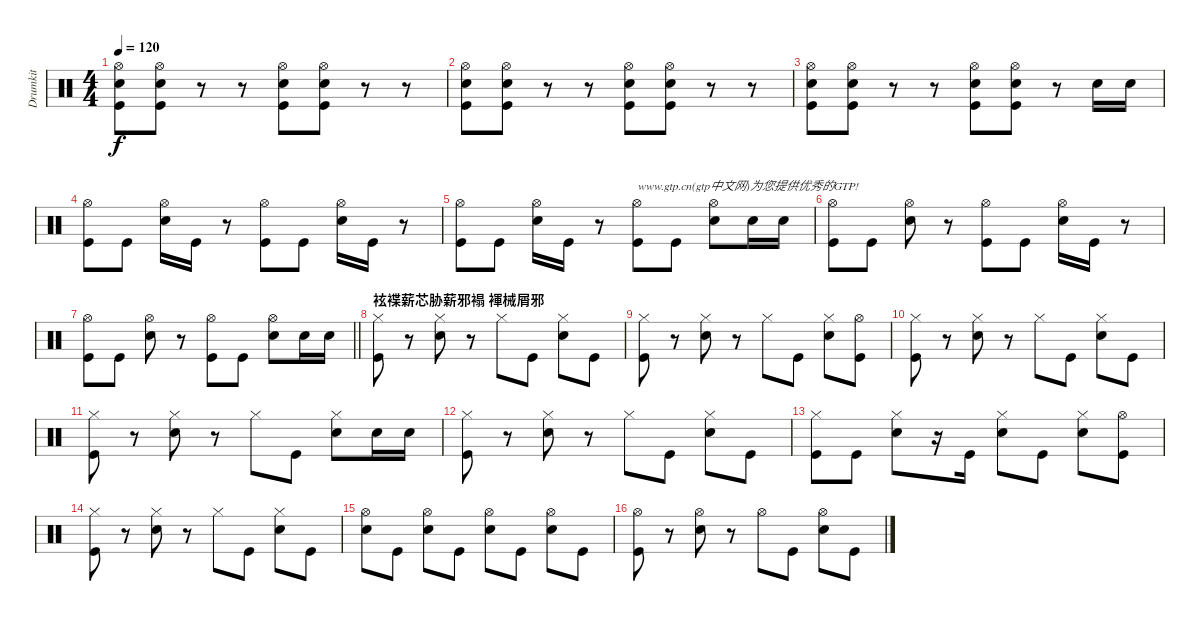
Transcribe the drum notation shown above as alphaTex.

\track ("Drumkit" "Drumkit") {instrument percussion}
\staff {score}
\articulation defaults
\ts (4 4)
\tempo 120
\clef neutral
\ks c
("Kick (hit)" "Snare (hit) 2" "Hi-Hat (open)").8{dy f} ("Kick (hit)" "Snare (hit) 2" "Hi-Hat (open)").8 r.8 r.8 ("Kick (hit)" "Snare (hit) 2" "Hi-Hat (open)").8 ("Kick (hit)" "Snare (hit) 2" "Hi-Hat (open)").8 r.8 r.8 |
("Kick (hit)" "Snare (hit) 2" "Hi-Hat (open)").8 ("Kick (hit)" "Snare (hit) 2" "Hi-Hat (open)").8 r.8 r.8 ("Kick (hit)" "Snare (hit) 2" "Hi-Hat (open)").8 ("Kick (hit)" "Snare (hit) 2" "Hi-Hat (open)").8 r.8 r.8 |
("Kick (hit)" "Snare (hit) 2" "Hi-Hat (open)").8 ("Kick (hit)" "Snare (hit) 2" "Hi-Hat (open)").8 r.8 r.8 ("Kick (hit)" "Snare (hit) 2" "Hi-Hat (open)").8 ("Kick (hit)" "Snare (hit) 2" "Hi-Hat (open)").8 r.8 "Snare (hit) 2".16 "Snare (hit) 2".16 |
("Kick (hit)" "Hi-Hat (open)").8 "Kick (hit)".8 ("Snare (hit) 2" "Hi-Hat (open)").16 "Kick (hit)".16 r.8 ("Kick (hit)" "Hi-Hat (open)").8 "Kick (hit)".8 ("Snare (hit) 2" "Hi-Hat (open)").16 "Kick (hit)".16 r.8 |
("Kick (hit)" "Hi-Hat (open)").8 "Kick (hit)".8 ("Snare (hit) 2" "Hi-Hat (open)").16 "Kick (hit)".16 r.8 ("Kick (hit)" "Hi-Hat (open)").8{txt "www.gtp.cn(gtp中文网)为您提供优秀的GTP!"} "Kick (hit)".8 ("Snare (hit) 2" "Hi-Hat (open)").8 "Snare (hit) 2".16 "Snare (hit) 2".16 |
("Kick (hit)" "Hi-Hat (open)").8 "Kick (hit)".8 ("Snare (hit) 2" "Hi-Hat (open)").8 r.8 ("Kick (hit)" "Hi-Hat (open)").8 "Kick (hit)".8 ("Snare (hit) 2" "Hi-Hat (open)").16 "Kick (hit)".16 r.8 |
\barLineRight lightlight
("Kick (hit)" "Hi-Hat (open)").8 "Kick (hit)".8 ("Snare (hit) 2" "Hi-Hat (open)").8 r.8 ("Kick (hit)" "Hi-Hat (open)").8 "Kick (hit)".8 ("Snare (hit) 2" "Hi-Hat (open)").8 "Snare (hit) 2".16 "Snare (hit) 2".16 |
\section ("" "袨褋薪芯胁薪邪褟 褌械屑邪")
("Kick (hit)" "Hi-Hat (closed)").8 r.8 ("Snare (hit) 2" "Hi-Hat (closed)").8 r.8 "Hi-Hat (closed)".8 "Kick (hit)".8 ("Snare (hit) 2" "Hi-Hat (closed)").8 "Kick (hit)".8 |
("Kick (hit)" "Hi-Hat (closed)").8 r.8 ("Snare (hit) 2" "Hi-Hat (closed)").8 r.8 "Hi-Hat (closed)".8 "Kick (hit)".8 ("Snare (hit) 2" "Hi-Hat (closed)").8 ("Kick (hit)" "Hi-Hat (open)").8 |
("Kick (hit)" "Hi-Hat (closed)").8 r.8 ("Snare (hit) 2" "Hi-Hat (closed)").8 r.8 "Hi-Hat (closed)".8 "Kick (hit)".8 ("Snare (hit) 2" "Hi-Hat (closed)").8 "Kick (hit)".8 |
("Kick (hit)" "Hi-Hat (closed)").8 r.8 ("Snare (hit) 2" "Hi-Hat (closed)").8 r.8 "Hi-Hat (closed)".8 "Kick (hit)".8 ("Snare (hit) 2" "Hi-Hat (closed)").8 "Snare (hit) 2".16 "Snare (hit) 2".16 |
("Kick (hit)" "Hi-Hat (closed)").8 r.8 ("Snare (hit) 2" "Hi-Hat (closed)").8 r.8 "Hi-Hat (closed)".8 "Kick (hit)".8 ("Snare (hit) 2" "Hi-Hat (closed)").8 "Kick (hit)".8 |
("Kick (hit)" "Hi-Hat (closed)").8 "Kick (hit)".8 ("Snare (hit) 2" "Hi-Hat (closed)").8 r.16 "Kick (hit)".16 ("Hi-Hat (closed)" "Snare (hit) 2").8 "Kick (hit)".8 ("Snare (hit) 2" "Hi-Hat (closed)").8 ("Kick (hit)" "Hi-Hat (open)").8 |
("Kick (hit)" "Hi-Hat (closed)").8 r.8 ("Snare (hit) 2" "Hi-Hat (closed)").8 r.8 "Hi-Hat (closed)".8 "Kick (hit)".8 ("Snare (hit) 2" "Hi-Hat (closed)").8 "Kick (hit)".8 |
("Snare (hit) 2" "Hi-Hat (open)").8 "Kick (hit)".8 ("Snare (hit) 2" "Hi-Hat (open)").8 "Kick (hit)".8 ("Hi-Hat (open)" "Snare (hit) 2").8 "Kick (hit)".8 ("Snare (hit) 2" "Hi-Hat (open)").8 "Kick (hit)".8 |
("Kick (hit)" "Hi-Hat (open)").8 r.8 ("Snare (hit) 2" "Hi-Hat (open)").8 r.8 "Hi-Hat (open)".8 "Kick (hit)".8 ("Snare (hit) 2" "Hi-Hat (open)").8 "Kick (hit)".8
